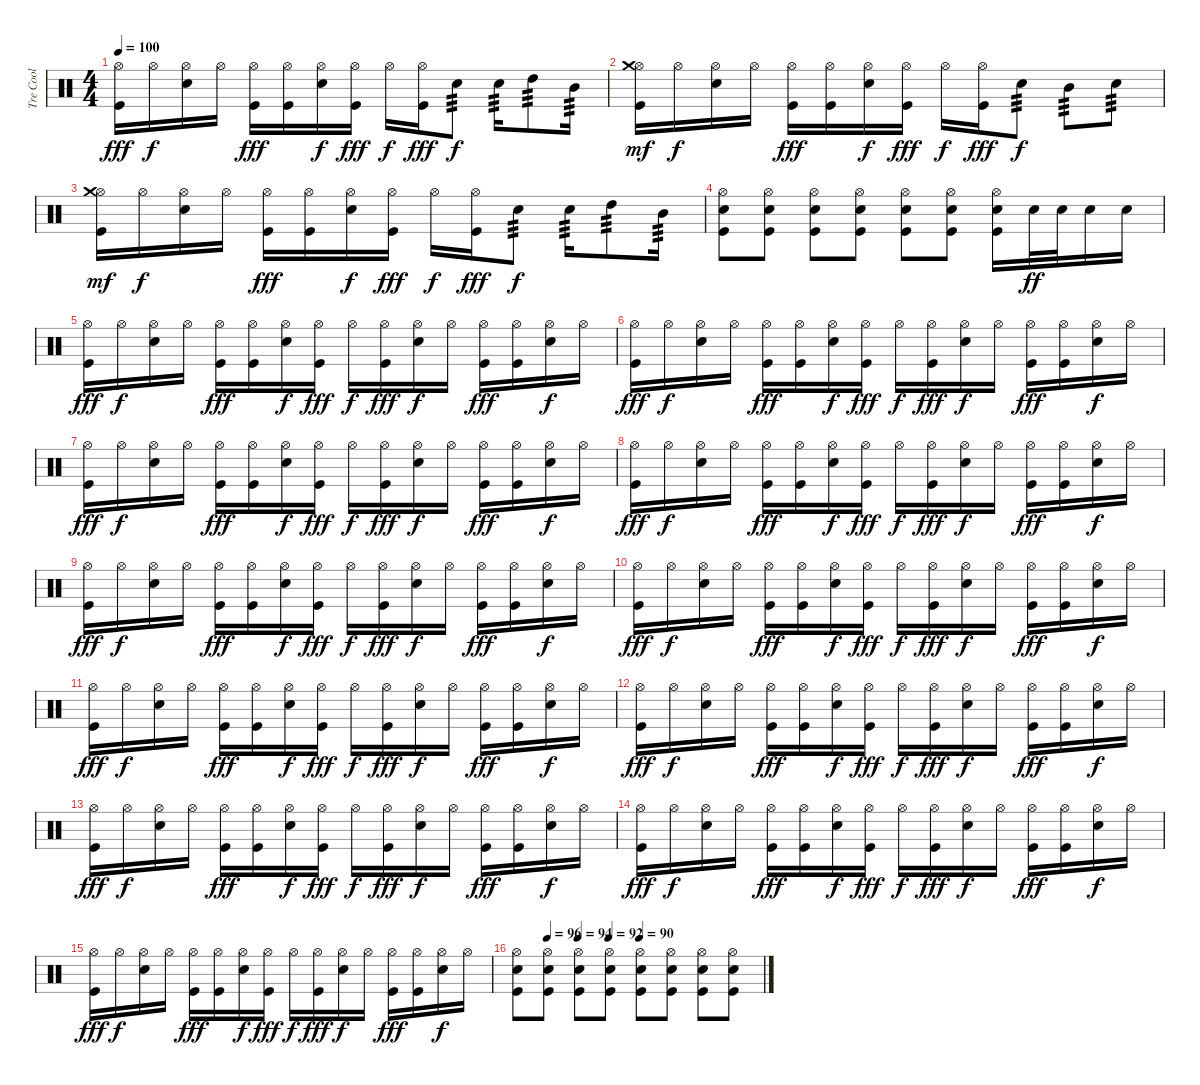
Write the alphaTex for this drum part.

\track ("Tre Cool" "Tre Cool") {instrument percussion}
\staff {score}
\articulation defaults
\ts (4 4)
\tempo 100
\clef neutral
\ks c
("Hi-Hat (open)" "Kick (hit)").16{dy fff} "Hi-Hat (open)".16{dy f} ("Hi-Hat (open)" "Snare (hit) 2").16 "Hi-Hat (open)".16 ("Hi-Hat (open)" "Kick (hit)").16{dy fff} ("Hi-Hat (open)" "Kick (hit)").16 ("Hi-Hat (open)" "Snare (hit) 2").16{dy f} ("Hi-Hat (open)" "Kick (hit)").16{dy fff} "Hi-Hat (open)".16{dy f} ("Hi-Hat (open)" "Kick (hit)").16{dy fff} "Snare (hit) 2".8{tp 3 dy f} "Snare (hit) 2".16{tp 3} "High Tom (hit)".8{tp 3} "Mid Tom (hit)".16{tp 3} |
("Hi-Hat (open)" "Kick (hit)" "Crash medium (hit)").16{dy mf} "Hi-Hat (open)".16{dy f} ("Hi-Hat (open)" "Snare (hit) 2").16 "Hi-Hat (open)".16 ("Hi-Hat (open)" "Kick (hit)").16{dy fff} ("Hi-Hat (open)" "Kick (hit)").16 ("Hi-Hat (open)" "Snare (hit) 2").16{dy f} ("Hi-Hat (open)" "Kick (hit)").16{dy fff} "Hi-Hat (open)".16{dy f} ("Hi-Hat (open)" "Kick (hit)").16{dy fff} "Snare (hit) 2".8{tp 3 dy f} "Mid Tom (hit)".8{tp 3} "Snare (hit) 2".8{tp 3} |
("Hi-Hat (open)" "Kick (hit)" "Crash medium (hit)").16{dy mf} "Hi-Hat (open)".16{dy f} ("Hi-Hat (open)" "Snare (hit) 2").16 "Hi-Hat (open)".16 ("Hi-Hat (open)" "Kick (hit)").16{dy fff} ("Hi-Hat (open)" "Kick (hit)").16 ("Hi-Hat (open)" "Snare (hit) 2").16{dy f} ("Hi-Hat (open)" "Kick (hit)").16{dy fff} "Hi-Hat (open)".16{dy f} ("Hi-Hat (open)" "Kick (hit)").16{dy fff} "Snare (hit) 2".8{tp 3 dy f} "Snare (hit) 2".16{tp 3} "High Tom (hit)".8{tp 3} "Mid Tom (hit)".16{tp 3} |
("Hi-Hat (open)" "Snare (hit) 2" "Kick (hit)").8 ("Hi-Hat (open)" "Snare (hit) 2" "Kick (hit)").8 ("Hi-Hat (open)" "Snare (hit) 2" "Kick (hit)").8 ("Hi-Hat (open)" "Snare (hit) 2" "Kick (hit)").8 ("Hi-Hat (open)" "Snare (hit) 2" "Kick (hit)").8 ("Hi-Hat (open)" "Snare (hit) 2" "Kick (hit)").8 ("Hi-Hat (open)" "Snare (hit) 2" "Kick (hit)").16 "Snare (hit) 2".32{dy ff} "Snare (hit) 2".32 "Snare (hit) 2".16 "Snare (hit) 2".16 |
("Hi-Hat (open)" "Kick (hit)").16{dy fff} "Hi-Hat (open)".16{dy f} ("Hi-Hat (open)" "Snare (hit) 2").16 "Hi-Hat (open)".16 ("Hi-Hat (open)" "Kick (hit)").16{dy fff} ("Hi-Hat (open)" "Kick (hit)").16 ("Hi-Hat (open)" "Snare (hit) 2").16{dy f} ("Hi-Hat (open)" "Kick (hit)").16{dy fff} "Hi-Hat (open)".16{dy f} ("Hi-Hat (open)" "Kick (hit)").16{dy fff} ("Hi-Hat (open)" "Snare (hit) 2").16{dy f} "Hi-Hat (open)".16 ("Hi-Hat (open)" "Kick (hit)").16{dy fff} ("Hi-Hat (open)" "Kick (hit)").16 ("Hi-Hat (open)" "Snare (hit) 2").16{dy f} "Hi-Hat (open)".16 |
("Hi-Hat (open)" "Kick (hit)").16{dy fff} "Hi-Hat (open)".16{dy f} ("Hi-Hat (open)" "Snare (hit) 2").16 "Hi-Hat (open)".16 ("Hi-Hat (open)" "Kick (hit)").16{dy fff} ("Hi-Hat (open)" "Kick (hit)").16 ("Hi-Hat (open)" "Snare (hit) 2").16{dy f} ("Hi-Hat (open)" "Kick (hit)").16{dy fff} "Hi-Hat (open)".16{dy f} ("Hi-Hat (open)" "Kick (hit)").16{dy fff} ("Hi-Hat (open)" "Snare (hit) 2").16{dy f} "Hi-Hat (open)".16 ("Hi-Hat (open)" "Kick (hit)").16{dy fff} ("Hi-Hat (open)" "Kick (hit)").16 ("Hi-Hat (open)" "Snare (hit) 2").16{dy f} "Hi-Hat (open)".16 |
("Hi-Hat (open)" "Kick (hit)").16{dy fff} "Hi-Hat (open)".16{dy f} ("Hi-Hat (open)" "Snare (hit) 2").16 "Hi-Hat (open)".16 ("Hi-Hat (open)" "Kick (hit)").16{dy fff} ("Hi-Hat (open)" "Kick (hit)").16 ("Hi-Hat (open)" "Snare (hit) 2").16{dy f} ("Hi-Hat (open)" "Kick (hit)").16{dy fff} "Hi-Hat (open)".16{dy f} ("Hi-Hat (open)" "Kick (hit)").16{dy fff} ("Hi-Hat (open)" "Snare (hit) 2").16{dy f} "Hi-Hat (open)".16 ("Hi-Hat (open)" "Kick (hit)").16{dy fff} ("Hi-Hat (open)" "Kick (hit)").16 ("Hi-Hat (open)" "Snare (hit) 2").16{dy f} "Hi-Hat (open)".16 |
("Hi-Hat (open)" "Kick (hit)").16{dy fff} "Hi-Hat (open)".16{dy f} ("Hi-Hat (open)" "Snare (hit) 2").16 "Hi-Hat (open)".16 ("Hi-Hat (open)" "Kick (hit)").16{dy fff} ("Hi-Hat (open)" "Kick (hit)").16 ("Hi-Hat (open)" "Snare (hit) 2").16{dy f} ("Hi-Hat (open)" "Kick (hit)").16{dy fff} "Hi-Hat (open)".16{dy f} ("Hi-Hat (open)" "Kick (hit)").16{dy fff} ("Hi-Hat (open)" "Snare (hit) 2").16{dy f} "Hi-Hat (open)".16 ("Hi-Hat (open)" "Kick (hit)").16{dy fff} ("Hi-Hat (open)" "Kick (hit)").16 ("Hi-Hat (open)" "Snare (hit) 2").16{dy f} "Hi-Hat (open)".16 |
("Hi-Hat (open)" "Kick (hit)").16{dy fff} "Hi-Hat (open)".16{dy f} ("Hi-Hat (open)" "Snare (hit) 2").16 "Hi-Hat (open)".16 ("Hi-Hat (open)" "Kick (hit)").16{dy fff} ("Hi-Hat (open)" "Kick (hit)").16 ("Hi-Hat (open)" "Snare (hit) 2").16{dy f} ("Hi-Hat (open)" "Kick (hit)").16{dy fff} "Hi-Hat (open)".16{dy f} ("Hi-Hat (open)" "Kick (hit)").16{dy fff} ("Hi-Hat (open)" "Snare (hit) 2").16{dy f} "Hi-Hat (open)".16 ("Hi-Hat (open)" "Kick (hit)").16{dy fff} ("Hi-Hat (open)" "Kick (hit)").16 ("Hi-Hat (open)" "Snare (hit) 2").16{dy f} "Hi-Hat (open)".16 |
("Hi-Hat (open)" "Kick (hit)").16{dy fff} "Hi-Hat (open)".16{dy f} ("Hi-Hat (open)" "Snare (hit) 2").16 "Hi-Hat (open)".16 ("Hi-Hat (open)" "Kick (hit)").16{dy fff} ("Hi-Hat (open)" "Kick (hit)").16 ("Hi-Hat (open)" "Snare (hit) 2").16{dy f} ("Hi-Hat (open)" "Kick (hit)").16{dy fff} "Hi-Hat (open)".16{dy f} ("Hi-Hat (open)" "Kick (hit)").16{dy fff} ("Hi-Hat (open)" "Snare (hit) 2").16{dy f} "Hi-Hat (open)".16 ("Hi-Hat (open)" "Kick (hit)").16{dy fff} ("Hi-Hat (open)" "Kick (hit)").16 ("Hi-Hat (open)" "Snare (hit) 2").16{dy f} "Hi-Hat (open)".16 |
("Hi-Hat (open)" "Kick (hit)").16{dy fff} "Hi-Hat (open)".16{dy f} ("Hi-Hat (open)" "Snare (hit) 2").16 "Hi-Hat (open)".16 ("Hi-Hat (open)" "Kick (hit)").16{dy fff} ("Hi-Hat (open)" "Kick (hit)").16 ("Hi-Hat (open)" "Snare (hit) 2").16{dy f} ("Hi-Hat (open)" "Kick (hit)").16{dy fff} "Hi-Hat (open)".16{dy f} ("Hi-Hat (open)" "Kick (hit)").16{dy fff} ("Hi-Hat (open)" "Snare (hit) 2").16{dy f} "Hi-Hat (open)".16 ("Hi-Hat (open)" "Kick (hit)").16{dy fff} ("Hi-Hat (open)" "Kick (hit)").16 ("Hi-Hat (open)" "Snare (hit) 2").16{dy f} "Hi-Hat (open)".16 |
("Hi-Hat (open)" "Kick (hit)").16{dy fff} "Hi-Hat (open)".16{dy f} ("Hi-Hat (open)" "Snare (hit) 2").16 "Hi-Hat (open)".16 ("Hi-Hat (open)" "Kick (hit)").16{dy fff} ("Hi-Hat (open)" "Kick (hit)").16 ("Hi-Hat (open)" "Snare (hit) 2").16{dy f} ("Hi-Hat (open)" "Kick (hit)").16{dy fff} "Hi-Hat (open)".16{dy f} ("Hi-Hat (open)" "Kick (hit)").16{dy fff} ("Hi-Hat (open)" "Snare (hit) 2").16{dy f} "Hi-Hat (open)".16 ("Hi-Hat (open)" "Kick (hit)").16{dy fff} ("Hi-Hat (open)" "Kick (hit)").16 ("Hi-Hat (open)" "Snare (hit) 2").16{dy f} "Hi-Hat (open)".16 |
("Hi-Hat (open)" "Kick (hit)").16{dy fff} "Hi-Hat (open)".16{dy f} ("Hi-Hat (open)" "Snare (hit) 2").16 "Hi-Hat (open)".16 ("Hi-Hat (open)" "Kick (hit)").16{dy fff} ("Hi-Hat (open)" "Kick (hit)").16 ("Hi-Hat (open)" "Snare (hit) 2").16{dy f} ("Hi-Hat (open)" "Kick (hit)").16{dy fff} "Hi-Hat (open)".16{dy f} ("Hi-Hat (open)" "Kick (hit)").16{dy fff} ("Hi-Hat (open)" "Snare (hit) 2").16{dy f} "Hi-Hat (open)".16 ("Hi-Hat (open)" "Kick (hit)").16{dy fff} ("Hi-Hat (open)" "Kick (hit)").16 ("Hi-Hat (open)" "Snare (hit) 2").16{dy f} "Hi-Hat (open)".16 |
("Hi-Hat (open)" "Kick (hit)").16{dy fff} "Hi-Hat (open)".16{dy f} ("Hi-Hat (open)" "Snare (hit) 2").16 "Hi-Hat (open)".16 ("Hi-Hat (open)" "Kick (hit)").16{dy fff} ("Hi-Hat (open)" "Kick (hit)").16 ("Hi-Hat (open)" "Snare (hit) 2").16{dy f} ("Hi-Hat (open)" "Kick (hit)").16{dy fff} "Hi-Hat (open)".16{dy f} ("Hi-Hat (open)" "Kick (hit)").16{dy fff} ("Hi-Hat (open)" "Snare (hit) 2").16{dy f} "Hi-Hat (open)".16 ("Hi-Hat (open)" "Kick (hit)").16{dy fff} ("Hi-Hat (open)" "Kick (hit)").16 ("Hi-Hat (open)" "Snare (hit) 2").16{dy f} "Hi-Hat (open)".16 |
("Hi-Hat (open)" "Kick (hit)").16{dy fff} "Hi-Hat (open)".16{dy f} ("Hi-Hat (open)" "Snare (hit) 2").16 "Hi-Hat (open)".16 ("Hi-Hat (open)" "Kick (hit)").16{dy fff} ("Hi-Hat (open)" "Kick (hit)").16 ("Hi-Hat (open)" "Snare (hit) 2").16{dy f} ("Hi-Hat (open)" "Kick (hit)").16{dy fff} "Hi-Hat (open)".16{dy f} ("Hi-Hat (open)" "Kick (hit)").16{dy fff} ("Hi-Hat (open)" "Snare (hit) 2").16{dy f} "Hi-Hat (open)".16 ("Hi-Hat (open)" "Kick (hit)").16{dy fff} ("Hi-Hat (open)" "Kick (hit)").16 ("Hi-Hat (open)" "Snare (hit) 2").16{dy f} "Hi-Hat (open)".16 |
\tempo (96 0.125)
\tempo (94 0.25)
\tempo (92 0.375)
\tempo (90 0.5)
("Hi-Hat (open)" "Snare (hit) 2" "Kick (hit)").8 ("Hi-Hat (open)" "Snare (hit) 2" "Kick (hit)").8 ("Hi-Hat (open)" "Snare (hit) 2" "Kick (hit)").8 ("Hi-Hat (open)" "Snare (hit) 2" "Kick (hit)").8 ("Hi-Hat (open)" "Snare (hit) 2" "Kick (hit)").8 ("Hi-Hat (open)" "Snare (hit) 2" "Kick (hit)").8 ("Hi-Hat (open)" "Snare (hit) 2" "Kick (hit)").8 ("Hi-Hat (open)" "Snare (hit) 2" "Kick (hit)").8
